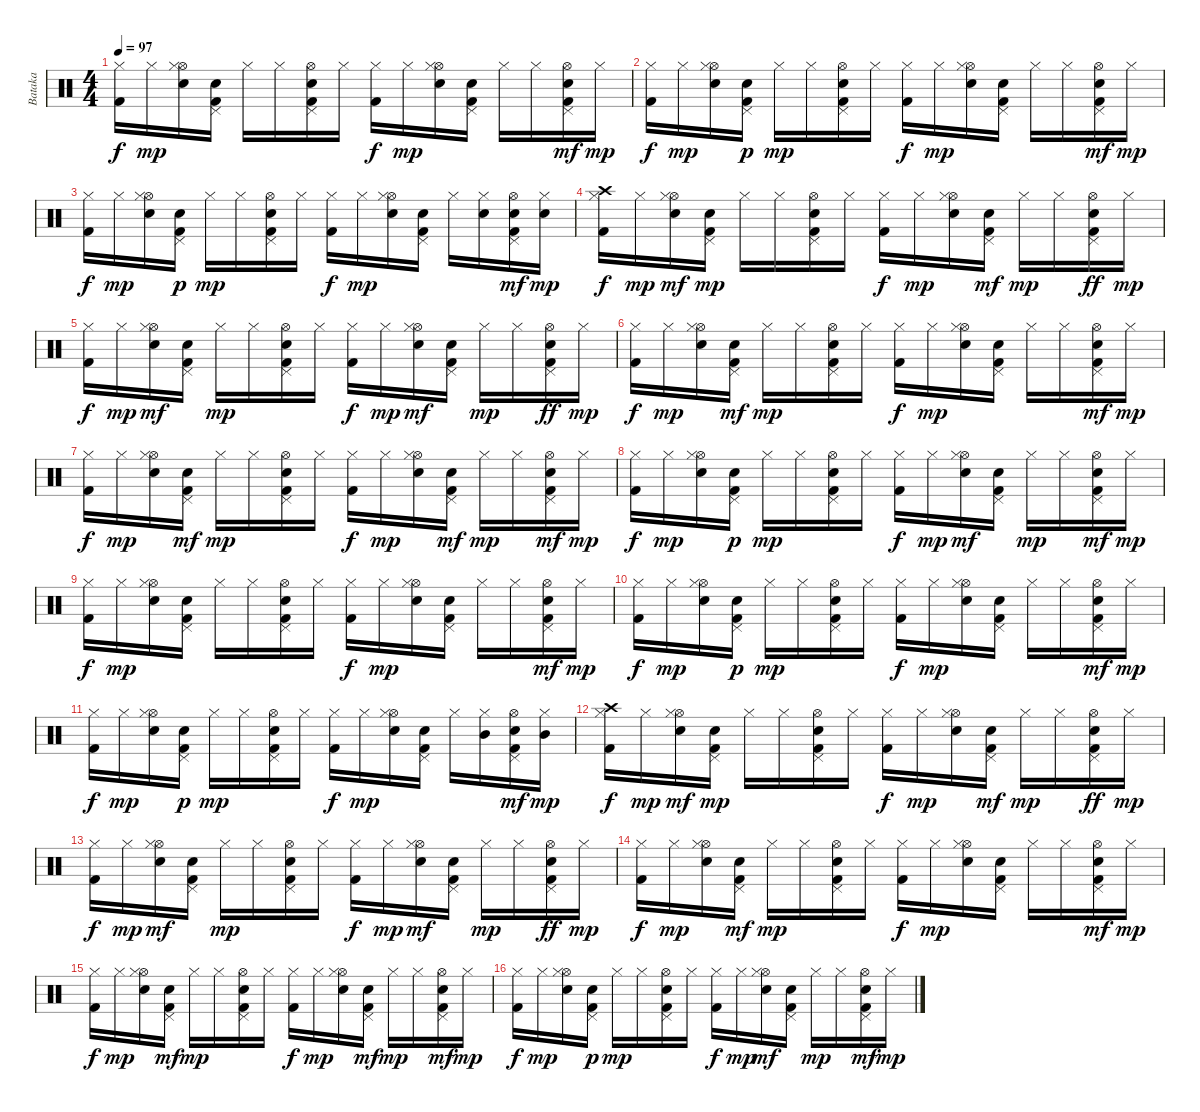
\track ("Bataka" "Bataka") {instrument percussion}
\staff {score}
\articulation defaults
\ts (4 4)
\tempo 97
\clef neutral
\ks c
("Kick (hit) 2" "Hi-Hat (closed)").16{dy f} "Hi-Hat (closed)".16{dy mp} ("Hi-Hat (open)" "Hi-Hat (closed)" "Electric Snare (hit)").16 ("Pedal Hi-Hat (hit)" "Kick (hit) 2" "Electric Snare (hit)").16 "Hi-Hat (closed)".16 "Hi-Hat (closed)".16 ("Hi-Hat (open)" "Kick (hit) 2" "Pedal Hi-Hat (hit)" "Electric Snare (hit)").16 "Hi-Hat (closed)".16 ("Kick (hit) 2" "Hi-Hat (closed)").16{dy f} "Hi-Hat (closed)".16{dy mp} ("Electric Snare (hit)" "Hi-Hat (open)" "Hi-Hat (closed)").16 ("Electric Snare (hit)" "Pedal Hi-Hat (hit)" "Kick (hit) 2").16 "Hi-Hat (closed)".16 "Hi-Hat (closed)".16 ("Electric Snare (hit)" "Hi-Hat (open)" "Pedal Hi-Hat (hit)" "Kick (hit) 2").16{dy mf} "Hi-Hat (closed)".16{dy mp} |
("Kick (hit) 2" "Hi-Hat (closed)").16{dy f} "Hi-Hat (closed)".16{dy mp} ("Electric Snare (hit)" "Hi-Hat (open)" "Hi-Hat (closed)").16 ("Electric Snare (hit)" "Pedal Hi-Hat (hit)" "Kick (hit) 2").16{dy p} "Hi-Hat (closed)".16{dy mp} "Hi-Hat (closed)".16 ("Hi-Hat (open)" "Kick (hit) 2" "Pedal Hi-Hat (hit)" "Electric Snare (hit)").16 "Hi-Hat (closed)".16 ("Kick (hit) 2" "Hi-Hat (closed)").16{dy f} "Hi-Hat (closed)".16{dy mp} ("Electric Snare (hit)" "Hi-Hat (open)" "Hi-Hat (closed)").16 ("Electric Snare (hit)" "Pedal Hi-Hat (hit)" "Kick (hit) 2").16 "Hi-Hat (closed)".16 "Hi-Hat (closed)".16 ("Hi-Hat (open)" "Pedal Hi-Hat (hit)" "Kick (hit) 2" "Electric Snare (hit)").16{dy mf} "Hi-Hat (closed)".16{dy mp} |
("Kick (hit) 2" "Hi-Hat (closed)").16{dy f} "Hi-Hat (closed)".16{dy mp} ("Electric Snare (hit)" "Hi-Hat (open)" "Hi-Hat (closed)").16 ("Electric Snare (hit)" "Pedal Hi-Hat (hit)" "Kick (hit) 2").16{dy p} "Hi-Hat (closed)".16{dy mp} "Hi-Hat (closed)".16 ("Electric Snare (hit)" "Hi-Hat (open)" "Kick (hit) 2" "Pedal Hi-Hat (hit)").16 "Hi-Hat (closed)".16 ("Kick (hit) 2" "Hi-Hat (closed)").16{dy f} "Hi-Hat (closed)".16{dy mp} ("Hi-Hat (open)" "Hi-Hat (closed)" "Electric Snare (hit)").16 ("Pedal Hi-Hat (hit)" "Kick (hit) 2" "Electric Snare (hit)").16 "Hi-Hat (closed)".16 ("Electric Snare (hit)" "Hi-Hat (closed)").16 ("Electric Snare (hit)" "Hi-Hat (open)" "Pedal Hi-Hat (hit)" "Kick (hit) 2").16{dy mf} ("Electric Snare (hit)" "Hi-Hat (closed)").16{dy mp} |
("Crash high (hit)" "Kick (hit) 2" "Hi-Hat (closed)").16{dy f} "Hi-Hat (closed)".16{dy mp} ("Hi-Hat (open)" "Hi-Hat (closed)" "Electric Snare (hit)").16{dy mf} ("Pedal Hi-Hat (hit)" "Kick (hit) 2" "Electric Snare (hit)").16{dy mp} "Hi-Hat (closed)".16 "Hi-Hat (closed)".16 ("Electric Snare (hit)" "Hi-Hat (open)" "Kick (hit) 2" "Pedal Hi-Hat (hit)").16 "Hi-Hat (closed)".16 ("Kick (hit) 2" "Hi-Hat (closed)").16{dy f} "Hi-Hat (closed)".16{dy mp} ("Hi-Hat (open)" "Hi-Hat (closed)" "Electric Snare (hit)").16 ("Pedal Hi-Hat (hit)" "Kick (hit) 2" "Electric Snare (hit)").16{dy mf} "Hi-Hat (closed)".16{dy mp} "Hi-Hat (closed)".16 ("Hi-Hat (open)" "Pedal Hi-Hat (hit)" "Kick (hit) 2" "Electric Snare (hit)").16{dy ff} "Hi-Hat (closed)".16{dy mp} |
("Kick (hit) 2" "Hi-Hat (closed)").16{dy f} "Hi-Hat (closed)".16{dy mp} ("Hi-Hat (open)" "Hi-Hat (closed)" "Electric Snare (hit)").16{dy mf} ("Pedal Hi-Hat (hit)" "Kick (hit) 2" "Electric Snare (hit)").16 "Hi-Hat (closed)".16{dy mp} "Hi-Hat (closed)".16 ("Electric Snare (hit)" "Hi-Hat (open)" "Kick (hit) 2" "Pedal Hi-Hat (hit)").16 "Hi-Hat (closed)".16 ("Kick (hit) 2" "Hi-Hat (closed)").16{dy f} "Hi-Hat (closed)".16{dy mp} ("Hi-Hat (open)" "Hi-Hat (closed)" "Electric Snare (hit)").16{dy mf} ("Pedal Hi-Hat (hit)" "Kick (hit) 2" "Electric Snare (hit)").16 "Hi-Hat (closed)".16{dy mp} "Hi-Hat (closed)".16 ("Hi-Hat (open)" "Pedal Hi-Hat (hit)" "Kick (hit) 2" "Electric Snare (hit)").16{dy ff} "Hi-Hat (closed)".16{dy mp} |
("Kick (hit) 2" "Hi-Hat (closed)").16{dy f} "Hi-Hat (closed)".16{dy mp} ("Hi-Hat (open)" "Hi-Hat (closed)" "Electric Snare (hit)").16 ("Pedal Hi-Hat (hit)" "Kick (hit) 2" "Electric Snare (hit)").16{dy mf} "Hi-Hat (closed)".16{dy mp} "Hi-Hat (closed)".16 ("Hi-Hat (open)" "Kick (hit) 2" "Pedal Hi-Hat (hit)" "Electric Snare (hit)").16 "Hi-Hat (closed)".16 ("Kick (hit) 2" "Hi-Hat (closed)").16{dy f} "Hi-Hat (closed)".16{dy mp} ("Hi-Hat (open)" "Hi-Hat (closed)" "Electric Snare (hit)").16 ("Pedal Hi-Hat (hit)" "Kick (hit) 2" "Electric Snare (hit)").16 "Hi-Hat (closed)".16 "Hi-Hat (closed)".16 ("Hi-Hat (open)" "Pedal Hi-Hat (hit)" "Kick (hit) 2" "Electric Snare (hit)").16{dy mf} "Hi-Hat (closed)".16{dy mp} |
("Kick (hit) 2" "Hi-Hat (closed)").16{dy f} "Hi-Hat (closed)".16{dy mp} ("Hi-Hat (open)" "Hi-Hat (closed)" "Electric Snare (hit)").16 ("Pedal Hi-Hat (hit)" "Kick (hit) 2" "Electric Snare (hit)").16{dy mf} "Hi-Hat (closed)".16{dy mp} "Hi-Hat (closed)".16 ("Hi-Hat (open)" "Kick (hit) 2" "Pedal Hi-Hat (hit)" "Electric Snare (hit)").16 "Hi-Hat (closed)".16 ("Kick (hit) 2" "Hi-Hat (closed)").16{dy f} "Hi-Hat (closed)".16{dy mp} ("Electric Snare (hit)" "Hi-Hat (open)" "Hi-Hat (closed)").16 ("Pedal Hi-Hat (hit)" "Kick (hit) 2" "Electric Snare (hit)").16{dy mf} "Hi-Hat (closed)".16{dy mp} "Hi-Hat (closed)".16 ("Hi-Hat (open)" "Pedal Hi-Hat (hit)" "Kick (hit) 2" "Electric Snare (hit)").16{dy mf} "Hi-Hat (closed)".16{dy mp} |
("Kick (hit) 2" "Hi-Hat (closed)").16{dy f} "Hi-Hat (closed)".16{dy mp} ("Electric Snare (hit)" "Hi-Hat (open)" "Hi-Hat (closed)").16 ("Electric Snare (hit)" "Pedal Hi-Hat (hit)" "Kick (hit) 2").16{dy p} "Hi-Hat (closed)".16{dy mp} "Hi-Hat (closed)".16 ("Hi-Hat (open)" "Kick (hit) 2" "Pedal Hi-Hat (hit)" "Electric Snare (hit)").16 "Hi-Hat (closed)".16 ("Kick (hit) 2" "Hi-Hat (closed)").16{dy f} "Hi-Hat (closed)".16{dy mp} ("Hi-Hat (open)" "Hi-Hat (closed)" "Electric Snare (hit)").16{dy mf} ("Pedal Hi-Hat (hit)" "Kick (hit) 2" "Electric Snare (hit)").16 "Hi-Hat (closed)".16{dy mp} "Hi-Hat (closed)".16 ("Hi-Hat (open)" "Pedal Hi-Hat (hit)" "Kick (hit) 2" "Electric Snare (hit)").16{dy mf} "Hi-Hat (closed)".16{dy mp} |
("Kick (hit) 2" "Hi-Hat (closed)").16{dy f} "Hi-Hat (closed)".16{dy mp} ("Hi-Hat (open)" "Hi-Hat (closed)" "Electric Snare (hit)").16 ("Pedal Hi-Hat (hit)" "Kick (hit) 2" "Electric Snare (hit)").16 "Hi-Hat (closed)".16 "Hi-Hat (closed)".16 ("Hi-Hat (open)" "Kick (hit) 2" "Pedal Hi-Hat (hit)" "Electric Snare (hit)").16 "Hi-Hat (closed)".16 ("Kick (hit) 2" "Hi-Hat (closed)").16{dy f} "Hi-Hat (closed)".16{dy mp} ("Electric Snare (hit)" "Hi-Hat (open)" "Hi-Hat (closed)").16 ("Electric Snare (hit)" "Pedal Hi-Hat (hit)" "Kick (hit) 2").16 "Hi-Hat (closed)".16 "Hi-Hat (closed)".16 ("Electric Snare (hit)" "Hi-Hat (open)" "Pedal Hi-Hat (hit)" "Kick (hit) 2").16{dy mf} "Hi-Hat (closed)".16{dy mp} |
("Kick (hit) 2" "Hi-Hat (closed)").16{dy f} "Hi-Hat (closed)".16{dy mp} ("Electric Snare (hit)" "Hi-Hat (open)" "Hi-Hat (closed)").16 ("Electric Snare (hit)" "Pedal Hi-Hat (hit)" "Kick (hit) 2").16{dy p} "Hi-Hat (closed)".16{dy mp} "Hi-Hat (closed)".16 ("Hi-Hat (open)" "Kick (hit) 2" "Pedal Hi-Hat (hit)" "Electric Snare (hit)").16 "Hi-Hat (closed)".16 ("Kick (hit) 2" "Hi-Hat (closed)").16{dy f} "Hi-Hat (closed)".16{dy mp} ("Electric Snare (hit)" "Hi-Hat (open)" "Hi-Hat (closed)").16 ("Electric Snare (hit)" "Pedal Hi-Hat (hit)" "Kick (hit) 2").16 "Hi-Hat (closed)".16 "Hi-Hat (closed)".16 ("Hi-Hat (open)" "Pedal Hi-Hat (hit)" "Kick (hit) 2" "Electric Snare (hit)").16{dy mf} "Hi-Hat (closed)".16{dy mp} |
("Kick (hit) 2" "Hi-Hat (closed)").16{dy f} "Hi-Hat (closed)".16{dy mp} ("Electric Snare (hit)" "Hi-Hat (open)" "Hi-Hat (closed)").16 ("Electric Snare (hit)" "Pedal Hi-Hat (hit)" "Kick (hit) 2").16{dy p} "Hi-Hat (closed)".16{dy mp} "Hi-Hat (closed)".16 ("Electric Snare (hit)" "Hi-Hat (open)" "Kick (hit) 2" "Pedal Hi-Hat (hit)").16 "Hi-Hat (closed)".16 ("Kick (hit) 2" "Hi-Hat (closed)").16{dy f} "Hi-Hat (closed)".16{dy mp} ("Hi-Hat (open)" "Hi-Hat (closed)" "Electric Snare (hit)").16 ("Pedal Hi-Hat (hit)" "Kick (hit) 2" "Electric Snare (hit)").16 "Hi-Hat (closed)".16 ("Mid Tom (hit)" "Hi-Hat (closed)").16 ("Electric Snare (hit)" "Hi-Hat (open)" "Pedal Hi-Hat (hit)" "Kick (hit) 2").16{dy mf} ("Mid Tom (hit)" "Hi-Hat (closed)").16{dy mp} |
("Crash high (hit)" "Kick (hit) 2" "Hi-Hat (closed)").16{dy f} "Hi-Hat (closed)".16{dy mp} ("Hi-Hat (open)" "Hi-Hat (closed)" "Electric Snare (hit)").16{dy mf} ("Pedal Hi-Hat (hit)" "Kick (hit) 2" "Electric Snare (hit)").16{dy mp} "Hi-Hat (closed)".16 "Hi-Hat (closed)".16 ("Electric Snare (hit)" "Hi-Hat (open)" "Kick (hit) 2" "Pedal Hi-Hat (hit)").16 "Hi-Hat (closed)".16 ("Kick (hit) 2" "Hi-Hat (closed)").16{dy f} "Hi-Hat (closed)".16{dy mp} ("Hi-Hat (open)" "Hi-Hat (closed)" "Electric Snare (hit)").16 ("Pedal Hi-Hat (hit)" "Kick (hit) 2" "Electric Snare (hit)").16{dy mf} "Hi-Hat (closed)".16{dy mp} "Hi-Hat (closed)".16 ("Hi-Hat (open)" "Pedal Hi-Hat (hit)" "Kick (hit) 2" "Electric Snare (hit)").16{dy ff} "Hi-Hat (closed)".16{dy mp} |
("Kick (hit) 2" "Hi-Hat (closed)").16{dy f} "Hi-Hat (closed)".16{dy mp} ("Hi-Hat (open)" "Hi-Hat (closed)" "Electric Snare (hit)").16{dy mf} ("Pedal Hi-Hat (hit)" "Kick (hit) 2" "Electric Snare (hit)").16 "Hi-Hat (closed)".16{dy mp} "Hi-Hat (closed)".16 ("Electric Snare (hit)" "Hi-Hat (open)" "Kick (hit) 2" "Pedal Hi-Hat (hit)").16 "Hi-Hat (closed)".16 ("Kick (hit) 2" "Hi-Hat (closed)").16{dy f} "Hi-Hat (closed)".16{dy mp} ("Hi-Hat (open)" "Hi-Hat (closed)" "Electric Snare (hit)").16{dy mf} ("Pedal Hi-Hat (hit)" "Kick (hit) 2" "Electric Snare (hit)").16 "Hi-Hat (closed)".16{dy mp} "Hi-Hat (closed)".16 ("Hi-Hat (open)" "Pedal Hi-Hat (hit)" "Kick (hit) 2" "Electric Snare (hit)").16{dy ff} "Hi-Hat (closed)".16{dy mp} |
("Kick (hit) 2" "Hi-Hat (closed)").16{dy f} "Hi-Hat (closed)".16{dy mp} ("Hi-Hat (open)" "Hi-Hat (closed)" "Electric Snare (hit)").16 ("Pedal Hi-Hat (hit)" "Kick (hit) 2" "Electric Snare (hit)").16{dy mf} "Hi-Hat (closed)".16{dy mp} "Hi-Hat (closed)".16 ("Hi-Hat (open)" "Kick (hit) 2" "Pedal Hi-Hat (hit)" "Electric Snare (hit)").16 "Hi-Hat (closed)".16 ("Kick (hit) 2" "Hi-Hat (closed)").16{dy f} "Hi-Hat (closed)".16{dy mp} ("Hi-Hat (open)" "Hi-Hat (closed)" "Electric Snare (hit)").16 ("Pedal Hi-Hat (hit)" "Kick (hit) 2" "Electric Snare (hit)").16 "Hi-Hat (closed)".16 "Hi-Hat (closed)".16 ("Hi-Hat (open)" "Pedal Hi-Hat (hit)" "Kick (hit) 2" "Electric Snare (hit)").16{dy mf} "Hi-Hat (closed)".16{dy mp} |
("Kick (hit) 2" "Hi-Hat (closed)").16{dy f} "Hi-Hat (closed)".16{dy mp} ("Hi-Hat (open)" "Hi-Hat (closed)" "Electric Snare (hit)").16 ("Pedal Hi-Hat (hit)" "Kick (hit) 2" "Electric Snare (hit)").16{dy mf} "Hi-Hat (closed)".16{dy mp} "Hi-Hat (closed)".16 ("Hi-Hat (open)" "Kick (hit) 2" "Pedal Hi-Hat (hit)" "Electric Snare (hit)").16 "Hi-Hat (closed)".16 ("Kick (hit) 2" "Hi-Hat (closed)").16{dy f} "Hi-Hat (closed)".16{dy mp} ("Electric Snare (hit)" "Hi-Hat (open)" "Hi-Hat (closed)").16 ("Pedal Hi-Hat (hit)" "Kick (hit) 2" "Electric Snare (hit)").16{dy mf} "Hi-Hat (closed)".16{dy mp} "Hi-Hat (closed)".16 ("Hi-Hat (open)" "Pedal Hi-Hat (hit)" "Kick (hit) 2" "Electric Snare (hit)").16{dy mf} "Hi-Hat (closed)".16{dy mp} |
("Kick (hit) 2" "Hi-Hat (closed)").16{dy f} "Hi-Hat (closed)".16{dy mp} ("Electric Snare (hit)" "Hi-Hat (open)" "Hi-Hat (closed)").16 ("Electric Snare (hit)" "Pedal Hi-Hat (hit)" "Kick (hit) 2").16{dy p} "Hi-Hat (closed)".16{dy mp} "Hi-Hat (closed)".16 ("Hi-Hat (open)" "Kick (hit) 2" "Pedal Hi-Hat (hit)" "Electric Snare (hit)").16 "Hi-Hat (closed)".16 ("Kick (hit) 2" "Hi-Hat (closed)").16{dy f} "Hi-Hat (closed)".16{dy mp} ("Hi-Hat (open)" "Hi-Hat (closed)" "Electric Snare (hit)").16{dy mf} ("Pedal Hi-Hat (hit)" "Kick (hit) 2" "Electric Snare (hit)").16 "Hi-Hat (closed)".16{dy mp} "Hi-Hat (closed)".16 ("Hi-Hat (open)" "Pedal Hi-Hat (hit)" "Kick (hit) 2" "Electric Snare (hit)").16{dy mf} "Hi-Hat (closed)".16{dy mp}
